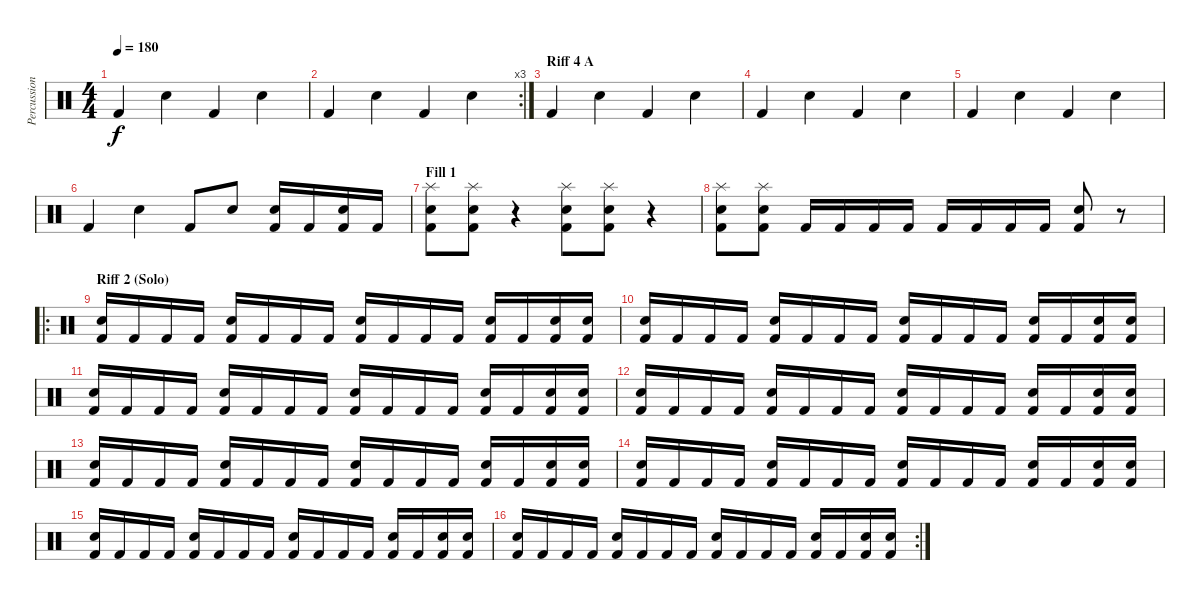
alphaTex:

\track ("Percussion" "Percussion") {instrument percussion}
\staff {score}
\articulation defaults
\ts (4 4)
\tempo 180
\clef neutral
\ks c "Kick (hit) 2".4{dy f} "Snare (hit) 2".4 "Kick (hit) 2".4 "Snare (hit) 2".4
|
\rc 3 "Kick (hit) 2".4 "Snare (hit) 2".4 "Kick (hit) 2".4 "Snare (hit) 2".4
|
\section ("" "Riff 4 A")
"Kick (hit) 2".4 "Snare (hit) 2".4 "Kick (hit) 2".4 "Snare (hit) 2".4 |
"Kick (hit) 2".4 "Snare (hit) 2".4 "Kick (hit) 2".4 "Snare (hit) 2".4 |
"Kick (hit) 2".4 "Snare (hit) 2".4 "Kick (hit) 2".4 "Snare (hit) 2".4 |
"Kick (hit) 2".4 "Snare (hit) 2".4 "Kick (hit) 2".8 "Snare (hit) 2".8 ("Snare (hit) 2" "Kick (hit) 2").16 "Kick (hit) 2".16 ("Snare (hit) 2" "Kick (hit) 2").16 "Kick (hit) 2".16 |
\section ("" "Fill 1")
("Snare (hit) 2" "Splash (hit)" "Kick (hit) 2").8 ("Snare (hit) 2" "Splash (hit)" "Kick (hit) 2").8 r.4 ("Snare (hit) 2" "Splash (hit)" "Kick (hit) 2").8 ("Snare (hit) 2" "Splash (hit)" "Kick (hit) 2").8 r.4 |
("Snare (hit) 2" "Splash (hit)" "Kick (hit) 2").8 ("Snare (hit) 2" "Splash (hit)" "Kick (hit) 2").8 "Kick (hit) 2".16 "Kick (hit) 2".16 "Kick (hit) 2".16 "Kick (hit) 2".16 "Kick (hit) 2".16 "Kick (hit) 2".16 "Kick (hit) 2".16 "Kick (hit) 2".16 ("Snare (hit) 2" "Kick (hit) 2").8 r.8 |
\ro
\section ("" "Riff 2 (Solo)")
("Snare (hit) 2" "Kick (hit) 2").16 "Kick (hit) 2".16 "Kick (hit) 2".16 "Kick (hit) 2".16 ("Snare (hit) 2" "Kick (hit) 2").16 "Kick (hit) 2".16 "Kick (hit) 2".16 "Kick (hit) 2".16 ("Snare (hit) 2" "Kick (hit) 2").16 "Kick (hit) 2".16 "Kick (hit) 2".16 "Kick (hit) 2".16 ("Snare (hit) 2" "Kick (hit) 2").16 "Kick (hit) 2".16 ("Snare (hit) 2" "Kick (hit) 2").16 ("Snare (hit) 2" "Kick (hit) 2").16 |
("Snare (hit) 2" "Kick (hit) 2").16 "Kick (hit) 2".16 "Kick (hit) 2".16 "Kick (hit) 2".16 ("Snare (hit) 2" "Kick (hit) 2").16 "Kick (hit) 2".16 "Kick (hit) 2".16 "Kick (hit) 2".16 ("Snare (hit) 2" "Kick (hit) 2").16 "Kick (hit) 2".16 "Kick (hit) 2".16 "Kick (hit) 2".16 ("Snare (hit) 2" "Kick (hit) 2").16 "Kick (hit) 2".16 ("Snare (hit) 2" "Kick (hit) 2").16 ("Snare (hit) 2" "Kick (hit) 2").16 |
("Snare (hit) 2" "Kick (hit) 2").16 "Kick (hit) 2".16 "Kick (hit) 2".16 "Kick (hit) 2".16 ("Snare (hit) 2" "Kick (hit) 2").16 "Kick (hit) 2".16 "Kick (hit) 2".16 "Kick (hit) 2".16 ("Snare (hit) 2" "Kick (hit) 2").16 "Kick (hit) 2".16 "Kick (hit) 2".16 "Kick (hit) 2".16 ("Snare (hit) 2" "Kick (hit) 2").16 "Kick (hit) 2".16 ("Snare (hit) 2" "Kick (hit) 2").16 ("Snare (hit) 2" "Kick (hit) 2").16 |
("Snare (hit) 2" "Kick (hit) 2").16 "Kick (hit) 2".16 "Kick (hit) 2".16 "Kick (hit) 2".16 ("Snare (hit) 2" "Kick (hit) 2").16 "Kick (hit) 2".16 "Kick (hit) 2".16 "Kick (hit) 2".16 ("Snare (hit) 2" "Kick (hit) 2").16 "Kick (hit) 2".16 "Kick (hit) 2".16 "Kick (hit) 2".16 ("Snare (hit) 2" "Kick (hit) 2").16 "Kick (hit) 2".16 ("Snare (hit) 2" "Kick (hit) 2").16 ("Snare (hit) 2" "Kick (hit) 2").16 |
("Snare (hit) 2" "Kick (hit) 2").16 "Kick (hit) 2".16 "Kick (hit) 2".16 "Kick (hit) 2".16 ("Snare (hit) 2" "Kick (hit) 2").16 "Kick (hit) 2".16 "Kick (hit) 2".16 "Kick (hit) 2".16 ("Snare (hit) 2" "Kick (hit) 2").16 "Kick (hit) 2".16 "Kick (hit) 2".16 "Kick (hit) 2".16 ("Snare (hit) 2" "Kick (hit) 2").16 "Kick (hit) 2".16 ("Snare (hit) 2" "Kick (hit) 2").16 ("Snare (hit) 2" "Kick (hit) 2").16 |
("Snare (hit) 2" "Kick (hit) 2").16 "Kick (hit) 2".16 "Kick (hit) 2".16 "Kick (hit) 2".16 ("Snare (hit) 2" "Kick (hit) 2").16 "Kick (hit) 2".16 "Kick (hit) 2".16 "Kick (hit) 2".16 ("Snare (hit) 2" "Kick (hit) 2").16 "Kick (hit) 2".16 "Kick (hit) 2".16 "Kick (hit) 2".16 ("Snare (hit) 2" "Kick (hit) 2").16 "Kick (hit) 2".16 ("Snare (hit) 2" "Kick (hit) 2").16 ("Snare (hit) 2" "Kick (hit) 2").16 |
("Snare (hit) 2" "Kick (hit) 2").16 "Kick (hit) 2".16 "Kick (hit) 2".16 "Kick (hit) 2".16 ("Snare (hit) 2" "Kick (hit) 2").16 "Kick (hit) 2".16 "Kick (hit) 2".16 "Kick (hit) 2".16 ("Snare (hit) 2" "Kick (hit) 2").16 "Kick (hit) 2".16 "Kick (hit) 2".16 "Kick (hit) 2".16 ("Snare (hit) 2" "Kick (hit) 2").16 "Kick (hit) 2".16 ("Snare (hit) 2" "Kick (hit) 2").16 ("Snare (hit) 2" "Kick (hit) 2").16 |
\rc 2
("Snare (hit) 2" "Kick (hit) 2").16 "Kick (hit) 2".16 "Kick (hit) 2".16 "Kick (hit) 2".16 ("Snare (hit) 2" "Kick (hit) 2").16 "Kick (hit) 2".16 "Kick (hit) 2".16 "Kick (hit) 2".16 ("Snare (hit) 2" "Kick (hit) 2").16 "Kick (hit) 2".16 "Kick (hit) 2".16 "Kick (hit) 2".16 ("Snare (hit) 2" "Kick (hit) 2").16 "Kick (hit) 2".16 ("Snare (hit) 2" "Kick (hit) 2").16 ("Snare (hit) 2" "Kick (hit) 2").16
